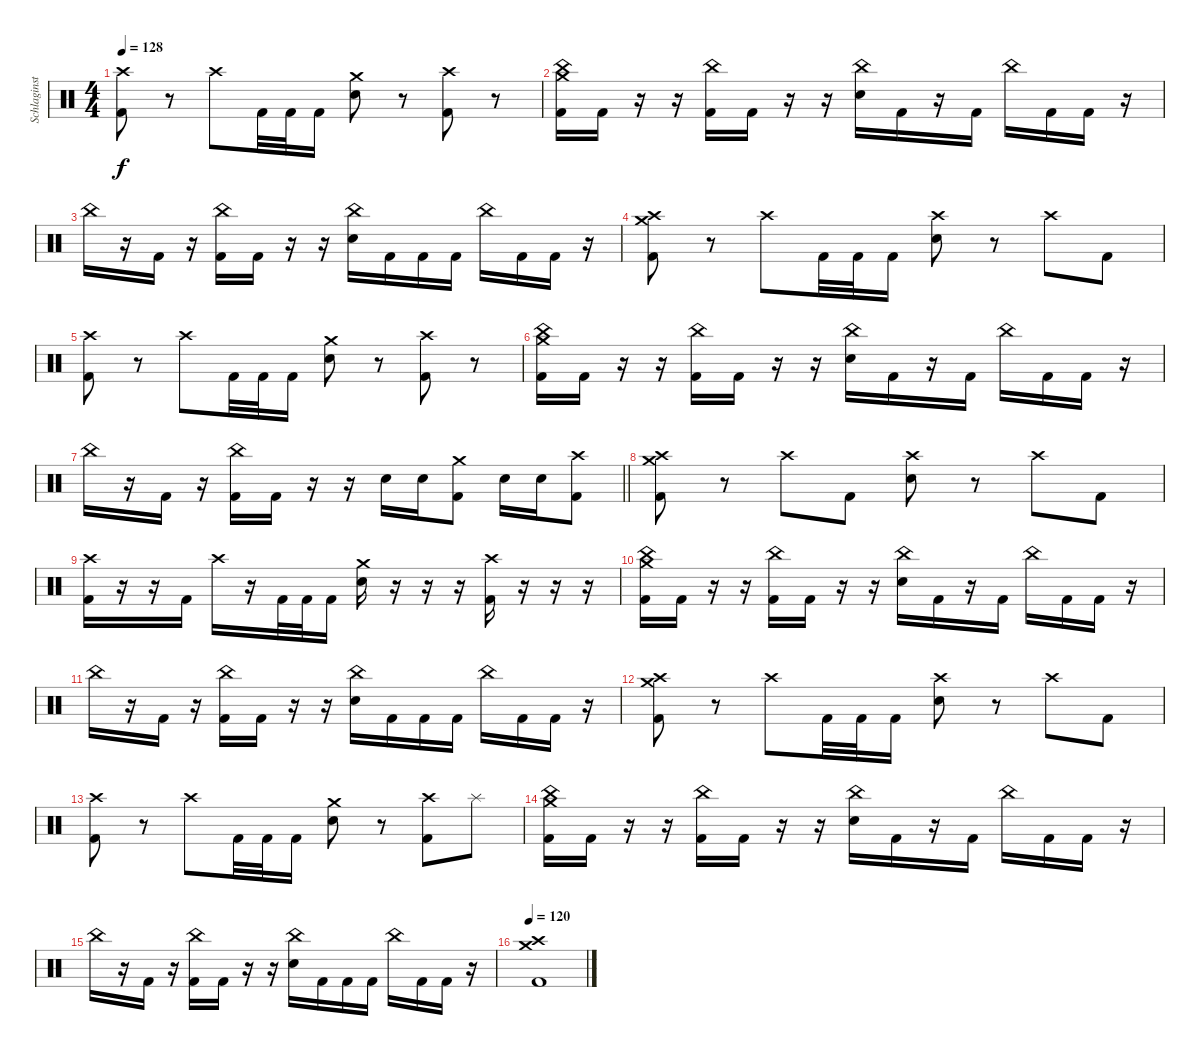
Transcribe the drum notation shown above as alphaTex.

\track ("Schlaginstrumente - Auswahl" "Schlaginst") {instrument percussion}
\staff {score}
\articulation defaults
\ts (4 4)
\tempo 128
\clef neutral
\ks c
("Crash high (hit)" "Kick (hit) 2").8{dy f} r.8 "Crash high (hit)".8 "Kick (hit) 2".32 "Kick (hit) 2".32 "Kick (hit) 2".16 ("Crash medium (hit)" "Electric Snare (hit)").8 r.8 ("Crash high (hit)" "Kick (hit) 2").8 r.8 |
("China (hit)" "Crash medium (hit)" "Kick (hit) 2").16 "Kick (hit) 2".16 r.16 r.16 ("China (hit)" "Kick (hit) 2").16 "Kick (hit) 2".16 r.16 r.16 ("China (hit)" "Electric Snare (hit)").16 "Kick (hit) 2".16 r.16 "Kick (hit) 2".16 "China (hit)".16 "Kick (hit) 2".16 "Kick (hit) 2".16 r.16 |
"China (hit)".16 r.16 "Kick (hit) 2".16 r.16 ("China (hit)" "Kick (hit) 2").16 "Kick (hit) 2".16 r.16 r.16 ("China (hit)" "Electric Snare (hit)").16 "Kick (hit) 2".16 "Kick (hit) 2".16 "Kick (hit) 2".16 "China (hit)".16 "Kick (hit) 2".16 "Kick (hit) 2".16 r.16 |
("Crash medium (hit)" "Crash high (hit)" "Kick (hit) 2").8 r.8 "Crash high (hit)".8 "Kick (hit) 2".32 "Kick (hit) 2".32 "Kick (hit) 2".16 ("Crash high (hit)" "Electric Snare (hit)").8 r.8 "Crash high (hit)".8 "Kick (hit) 2".8 |
("Crash high (hit)" "Kick (hit) 2").8 r.8 "Crash high (hit)".8 "Kick (hit) 2".32 "Kick (hit) 2".32 "Kick (hit) 2".16 ("Crash medium (hit)" "Electric Snare (hit)").8 r.8 ("Crash high (hit)" "Kick (hit) 2").8 r.8 |
("China (hit)" "Crash medium (hit)" "Kick (hit) 2").16 "Kick (hit) 2".16 r.16 r.16 ("China (hit)" "Kick (hit) 2").16 "Kick (hit) 2".16 r.16 r.16 ("China (hit)" "Electric Snare (hit)").16 "Kick (hit) 2".16 r.16 "Kick (hit) 2".16 "China (hit)".16 "Kick (hit) 2".16 "Kick (hit) 2".16 r.16 |
\barLineRight lightlight "China (hit)".16
r.16 "Kick (hit) 2".16 r.16 ("China (hit)" "Kick (hit) 2").16 "Kick (hit) 2".16 r.16 r.16 "Electric Snare (hit)".16 "Electric Snare (hit)".16 ("Crash medium (hit)" "Kick (hit) 2").8 "Electric Snare (hit)".16 "Electric Snare (hit)".16 ("Crash high (hit)" "Kick (hit) 2").8 |
("Crash medium (hit)" "Crash high (hit)" "Kick (hit) 2").8 r.8 "Crash high (hit)".8 "Kick (hit) 2".8 ("Crash high (hit)" "Electric Snare (hit)").8 r.8 "Crash high (hit)".8 "Kick (hit) 2".8 |
("Crash high (hit)" "Kick (hit) 2").16 r.16 r.16 "Kick (hit) 2".16 "Crash high (hit)".16 r.16 "Kick (hit) 2".32 "Kick (hit) 2".32 "Kick (hit) 2".16 ("Crash medium (hit)" "Electric Snare (hit)").16 r.16 r.16 r.16 ("Crash high (hit)" "Kick (hit) 2").16 r.16 r.16 r.16 |
("China (hit)" "Crash medium (hit)" "Kick (hit) 2").16 "Kick (hit) 2".16 r.16 r.16 ("China (hit)" "Kick (hit) 2").16 "Kick (hit) 2".16 r.16 r.16 ("China (hit)" "Electric Snare (hit)").16 "Kick (hit) 2".16 r.16 "Kick (hit) 2".16 "China (hit)".16 "Kick (hit) 2".16 "Kick (hit) 2".16 r.16 |
"China (hit)".16 r.16 "Kick (hit) 2".16 r.16 ("China (hit)" "Kick (hit) 2").16 "Kick (hit) 2".16 r.16 r.16 ("China (hit)" "Electric Snare (hit)").16 "Kick (hit) 2".16 "Kick (hit) 2".16 "Kick (hit) 2".16 "China (hit)".16 "Kick (hit) 2".16 "Kick (hit) 2".16 r.16 |
("Crash medium (hit)" "Crash high (hit)" "Kick (hit) 2").8 r.8 "Crash high (hit)".8 "Kick (hit) 2".32 "Kick (hit) 2".32 "Kick (hit) 2".16 ("Crash high (hit)" "Electric Snare (hit)").8 r.8 "Crash high (hit)".8 "Kick (hit) 2".8 |
("Crash high (hit)" "Kick (hit) 2").8 r.8 "Crash high (hit)".8 "Kick (hit) 2".32 "Kick (hit) 2".32 "Kick (hit) 2".16 ("Crash medium (hit)" "Electric Snare (hit)").8 r.8 ("Crash high (hit)" "Kick (hit) 2").8 "Splash (hit)".8 |
("China (hit)" "Crash medium (hit)" "Kick (hit) 2").16 "Kick (hit) 2".16 r.16 r.16 ("China (hit)" "Kick (hit) 2").16 "Kick (hit) 2".16 r.16 r.16 ("China (hit)" "Electric Snare (hit)").16 "Kick (hit) 2".16 r.16 "Kick (hit) 2".16 "China (hit)".16 "Kick (hit) 2".16 "Kick (hit) 2".16 r.16 |
"China (hit)".16 r.16 "Kick (hit) 2".16 r.16 ("China (hit)" "Kick (hit) 2").16 "Kick (hit) 2".16 r.16 r.16 ("China (hit)" "Electric Snare (hit)").16 "Kick (hit) 2".16 "Kick (hit) 2".16 "Kick (hit) 2".16 "China (hit)".16 "Kick (hit) 2".16 "Kick (hit) 2".16 r.16 |
\tempo 120
("Crash medium (hit)" "Crash high (hit)" "Kick (hit) 2").1
